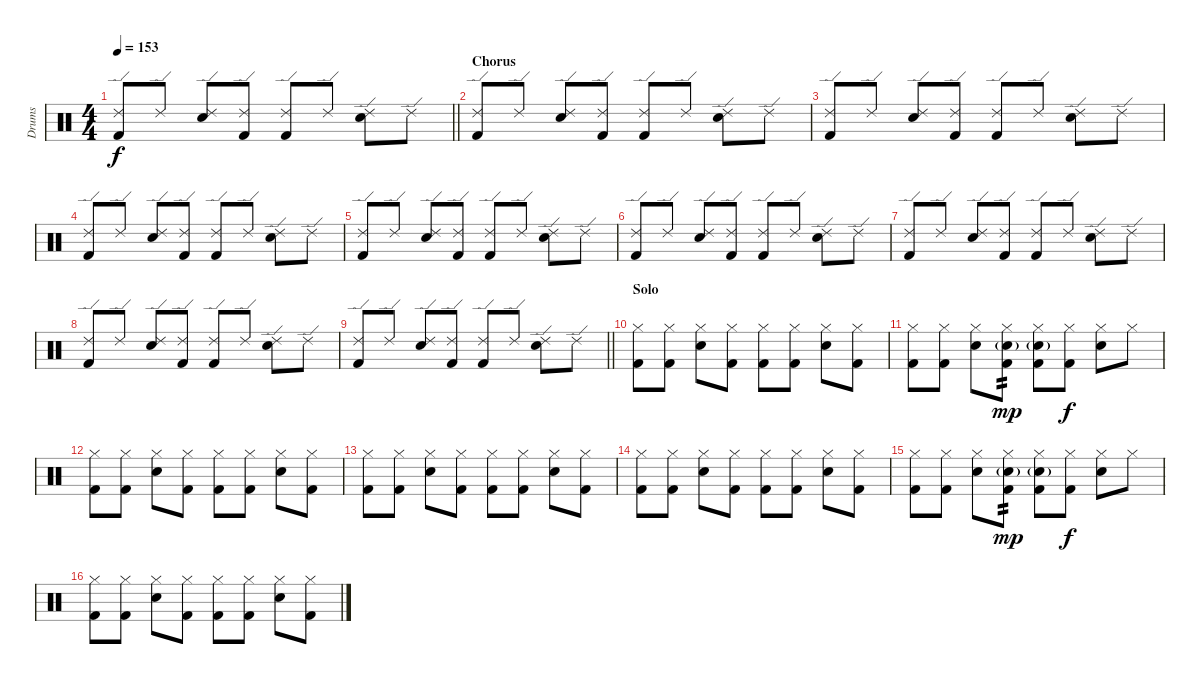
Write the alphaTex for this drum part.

\track ("Drums" "Drums") {instrument percussion}
\staff {score}
\articulation defaults
\ts (4 4)
\tempo 153
\clef neutral
\barLineRight lightlight
\ks c
("Kick (hit) 2" "Ride (edge) 2").8{dy f} "Ride (edge) 2".8 ("Electric Snare (hit)" "Ride (edge) 2").8 ("Kick (hit) 2" "Ride (edge) 2").8 ("Kick (hit) 2" "Ride (edge) 2").8 "Ride (edge) 2".8 ("Electric Snare (hit)" "Ride (edge) 2").8 "Ride (edge) 2".8 |
\section ("" "Chorus")
("Kick (hit) 2" "Ride (edge) 2").8 "Ride (edge) 2".8 ("Electric Snare (hit)" "Ride (edge) 2").8 ("Kick (hit) 2" "Ride (edge) 2").8 ("Kick (hit) 2" "Ride (edge) 2").8 "Ride (edge) 2".8 ("Electric Snare (hit)" "Ride (edge) 2").8 "Ride (edge) 2".8 |
("Kick (hit) 2" "Ride (edge) 2").8 "Ride (edge) 2".8 ("Electric Snare (hit)" "Ride (edge) 2").8 ("Kick (hit) 2" "Ride (edge) 2").8 ("Kick (hit) 2" "Ride (edge) 2").8 "Ride (edge) 2".8 ("Electric Snare (hit)" "Ride (edge) 2").8 "Ride (edge) 2".8 |
("Kick (hit) 2" "Ride (edge) 2").8 "Ride (edge) 2".8 ("Electric Snare (hit)" "Ride (edge) 2").8 ("Kick (hit) 2" "Ride (edge) 2").8 ("Kick (hit) 2" "Ride (edge) 2").8 "Ride (edge) 2".8 ("Electric Snare (hit)" "Ride (edge) 2").8 "Ride (edge) 2".8 |
("Kick (hit) 2" "Ride (edge) 2").8 "Ride (edge) 2".8 ("Electric Snare (hit)" "Ride (edge) 2").8 ("Kick (hit) 2" "Ride (edge) 2").8 ("Kick (hit) 2" "Ride (edge) 2").8 "Ride (edge) 2".8 ("Electric Snare (hit)" "Ride (edge) 2").8 "Ride (edge) 2".8 |
("Kick (hit) 2" "Ride (edge) 2").8 "Ride (edge) 2".8 ("Electric Snare (hit)" "Ride (edge) 2").8 ("Kick (hit) 2" "Ride (edge) 2").8 ("Kick (hit) 2" "Ride (edge) 2").8 "Ride (edge) 2".8 ("Electric Snare (hit)" "Ride (edge) 2").8 "Ride (edge) 2".8 |
("Kick (hit) 2" "Ride (edge) 2").8 "Ride (edge) 2".8 ("Electric Snare (hit)" "Ride (edge) 2").8 ("Kick (hit) 2" "Ride (edge) 2").8 ("Kick (hit) 2" "Ride (edge) 2").8 "Ride (edge) 2".8 ("Electric Snare (hit)" "Ride (edge) 2").8 "Ride (edge) 2".8 |
("Kick (hit) 2" "Ride (edge) 2").8 "Ride (edge) 2".8 ("Electric Snare (hit)" "Ride (edge) 2").8 ("Kick (hit) 2" "Ride (edge) 2").8 ("Kick (hit) 2" "Ride (edge) 2").8 "Ride (edge) 2".8 ("Electric Snare (hit)" "Ride (edge) 2").8 "Ride (edge) 2".8 |
\barLineRight lightlight
("Kick (hit) 2" "Ride (edge) 2").8 "Ride (edge) 2".8 ("Electric Snare (hit)" "Ride (edge) 2").8 ("Kick (hit) 2" "Ride (edge) 2").8 ("Kick (hit) 2" "Ride (edge) 2").8 "Ride (edge) 2".8 ("Electric Snare (hit)" "Ride (edge) 2").8 "Ride (edge) 2".8 |
\section ("" "Solo")
("Kick (hit) 2" "Hi-Hat (closed)").8 ("Kick (hit) 2" "Hi-Hat (closed)").8 ("Electric Snare (hit)" "Hi-Hat (closed)").8 ("Kick (hit) 2" "Hi-Hat (closed)").8 ("Kick (hit) 2" "Hi-Hat (closed)").8 ("Kick (hit) 2" "Hi-Hat (closed)").8 ("Electric Snare (hit)" "Hi-Hat (closed)").8 ("Kick (hit) 2" "Hi-Hat (closed)").8 |
("Kick (hit) 2" "Hi-Hat (closed)").8 ("Kick (hit) 2" "Hi-Hat (closed)").8 ("Electric Snare (hit)" "Hi-Hat (closed)").8 ("Kick (hit) 2" "Electric Snare (hit)"{g} "Hi-Hat (closed)").8{tp 2 dy mp} ("Kick (hit) 2" "Electric Snare (hit)"{g} "Hi-Hat (closed)").8 ("Kick (hit) 2" "Hi-Hat (closed)").8{dy f} ("Electric Snare (hit)" "Hi-Hat (closed)").8 "Hi-Hat (closed)".8 |
("Kick (hit) 2" "Hi-Hat (closed)").8 ("Kick (hit) 2" "Hi-Hat (closed)").8 ("Electric Snare (hit)" "Hi-Hat (closed)").8 ("Kick (hit) 2" "Hi-Hat (closed)").8 ("Kick (hit) 2" "Hi-Hat (closed)").8 ("Kick (hit) 2" "Hi-Hat (closed)").8 ("Electric Snare (hit)" "Hi-Hat (closed)").8 ("Kick (hit) 2" "Hi-Hat (closed)").8 |
("Kick (hit) 2" "Hi-Hat (closed)").8 ("Kick (hit) 2" "Hi-Hat (closed)").8 ("Electric Snare (hit)" "Hi-Hat (closed)").8 ("Kick (hit) 2" "Hi-Hat (closed)").8 ("Kick (hit) 2" "Hi-Hat (closed)").8 ("Kick (hit) 2" "Hi-Hat (closed)").8 ("Electric Snare (hit)" "Hi-Hat (closed)").8 ("Kick (hit) 2" "Hi-Hat (closed)").8 |
("Kick (hit) 2" "Hi-Hat (closed)").8 ("Kick (hit) 2" "Hi-Hat (closed)").8 ("Electric Snare (hit)" "Hi-Hat (closed)").8 ("Kick (hit) 2" "Hi-Hat (closed)").8 ("Kick (hit) 2" "Hi-Hat (closed)").8 ("Kick (hit) 2" "Hi-Hat (closed)").8 ("Electric Snare (hit)" "Hi-Hat (closed)").8 ("Kick (hit) 2" "Hi-Hat (closed)").8 |
("Kick (hit) 2" "Hi-Hat (closed)").8 ("Kick (hit) 2" "Hi-Hat (closed)").8 ("Electric Snare (hit)" "Hi-Hat (closed)").8 ("Kick (hit) 2" "Electric Snare (hit)"{g} "Hi-Hat (closed)").8{tp 2 dy mp} ("Kick (hit) 2" "Electric Snare (hit)"{g} "Hi-Hat (closed)").8 ("Kick (hit) 2" "Hi-Hat (closed)").8{dy f} ("Electric Snare (hit)" "Hi-Hat (closed)").8 "Hi-Hat (closed)".8 |
("Kick (hit) 2" "Hi-Hat (closed)").8 ("Kick (hit) 2" "Hi-Hat (closed)").8 ("Electric Snare (hit)" "Hi-Hat (closed)").8 ("Kick (hit) 2" "Hi-Hat (closed)").8 ("Kick (hit) 2" "Hi-Hat (closed)").8 ("Kick (hit) 2" "Hi-Hat (closed)").8 ("Electric Snare (hit)" "Hi-Hat (closed)").8 ("Kick (hit) 2" "Hi-Hat (closed)").8
